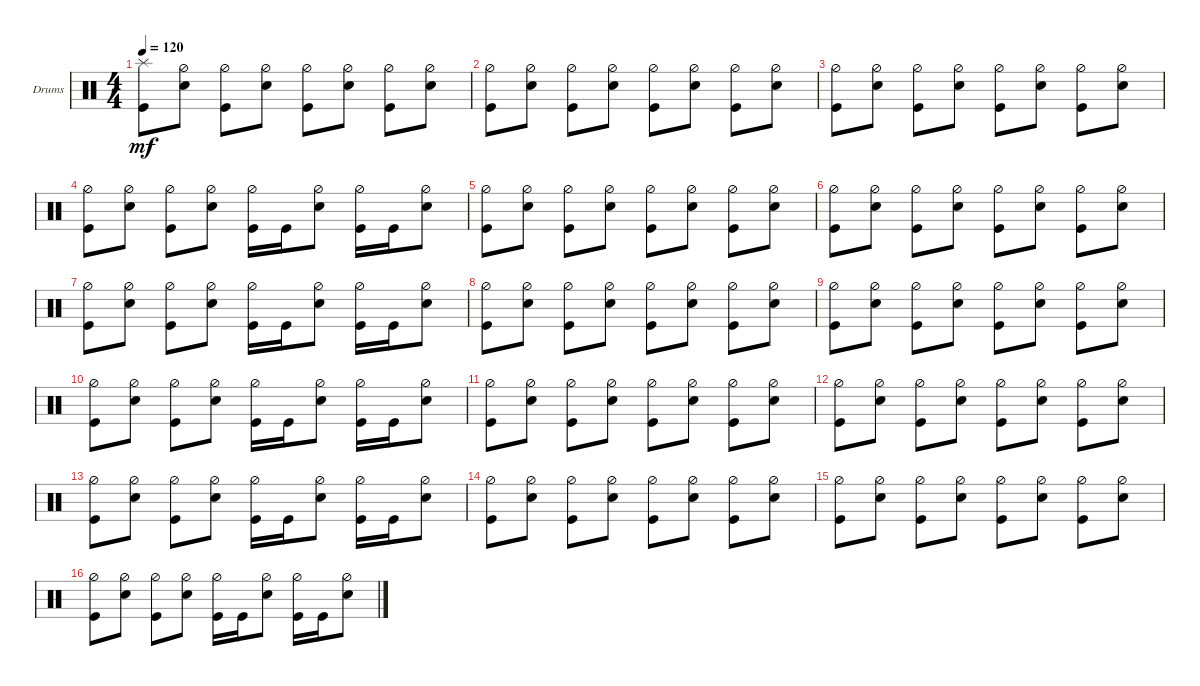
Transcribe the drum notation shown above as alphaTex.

\bracketExtendMode groupsimilarinstruments
\firstSystemTrackNameOrientation horizontal
\otherSystemsTrackNameOrientation horizontal
\track ("Drumkit" "Drums") {solo instrument percussion}
\staff {score}
\articulation defaults
\ts (4 4)
\tempo 120
\clef neutral
\ks c
("Kick (hit)" "Splash (hit)").8{dy mf} ("Snare (hit) 2" "Hi-Hat (half)").8 ("Kick (hit)" "Hi-Hat (half)").8 ("Snare (hit) 2" "Hi-Hat (half)").8 ("Kick (hit)" "Hi-Hat (half)").8 ("Snare (hit) 2" "Hi-Hat (half)").8 ("Kick (hit)" "Hi-Hat (half)").8 ("Snare (hit) 2" "Hi-Hat (half)").8 |
("Kick (hit)" "Hi-Hat (half)").8 ("Snare (hit) 2" "Hi-Hat (half)").8 ("Kick (hit)" "Hi-Hat (half)").8 ("Snare (hit) 2" "Hi-Hat (half)").8 ("Kick (hit)" "Hi-Hat (half)").8 ("Snare (hit) 2" "Hi-Hat (half)").8 ("Kick (hit)" "Hi-Hat (half)").8 ("Snare (hit) 2" "Hi-Hat (half)").8 |
("Kick (hit)" "Hi-Hat (half)").8 ("Snare (hit) 2" "Hi-Hat (half)").8 ("Kick (hit)" "Hi-Hat (half)").8 ("Snare (hit) 2" "Hi-Hat (half)").8 ("Kick (hit)" "Hi-Hat (half)").8 ("Snare (hit) 2" "Hi-Hat (half)").8 ("Kick (hit)" "Hi-Hat (half)").8 ("Snare (hit) 2" "Hi-Hat (half)").8 |
("Kick (hit)" "Hi-Hat (half)").8 ("Snare (hit) 2" "Hi-Hat (half)").8 ("Kick (hit)" "Hi-Hat (half)").8 ("Snare (hit) 2" "Hi-Hat (half)").8 ("Kick (hit)" "Hi-Hat (half)").16 "Kick (hit)".16 ("Snare (hit) 2" "Hi-Hat (half)").8 ("Kick (hit)" "Hi-Hat (half)").16 "Kick (hit)".16 ("Snare (hit) 2" "Hi-Hat (half)").8 |
("Kick (hit)" "Hi-Hat (half)").8 ("Snare (hit) 2" "Hi-Hat (half)").8 ("Kick (hit)" "Hi-Hat (half)").8 ("Snare (hit) 2" "Hi-Hat (half)").8 ("Kick (hit)" "Hi-Hat (half)").8 ("Snare (hit) 2" "Hi-Hat (half)").8 ("Kick (hit)" "Hi-Hat (half)").8 ("Snare (hit) 2" "Hi-Hat (half)").8 |
("Kick (hit)" "Hi-Hat (half)").8 ("Snare (hit) 2" "Hi-Hat (half)").8 ("Kick (hit)" "Hi-Hat (half)").8 ("Snare (hit) 2" "Hi-Hat (half)").8 ("Kick (hit)" "Hi-Hat (half)").8 ("Snare (hit) 2" "Hi-Hat (half)").8 ("Kick (hit)" "Hi-Hat (half)").8 ("Snare (hit) 2" "Hi-Hat (half)").8 |
("Kick (hit)" "Hi-Hat (half)").8 ("Snare (hit) 2" "Hi-Hat (half)").8 ("Kick (hit)" "Hi-Hat (half)").8 ("Snare (hit) 2" "Hi-Hat (half)").8 ("Kick (hit)" "Hi-Hat (half)").16 "Kick (hit)".16 ("Snare (hit) 2" "Hi-Hat (half)").8 ("Kick (hit)" "Hi-Hat (half)").16 "Kick (hit)".16 ("Snare (hit) 2" "Hi-Hat (half)").8 |
("Kick (hit)" "Hi-Hat (half)").8 ("Snare (hit) 2" "Hi-Hat (half)").8 ("Kick (hit)" "Hi-Hat (half)").8 ("Snare (hit) 2" "Hi-Hat (half)").8 ("Kick (hit)" "Hi-Hat (half)").8 ("Snare (hit) 2" "Hi-Hat (half)").8 ("Kick (hit)" "Hi-Hat (half)").8 ("Snare (hit) 2" "Hi-Hat (half)").8 |
("Kick (hit)" "Hi-Hat (half)").8 ("Snare (hit) 2" "Hi-Hat (half)").8 ("Kick (hit)" "Hi-Hat (half)").8 ("Snare (hit) 2" "Hi-Hat (half)").8 ("Kick (hit)" "Hi-Hat (half)").8 ("Snare (hit) 2" "Hi-Hat (half)").8 ("Kick (hit)" "Hi-Hat (half)").8 ("Snare (hit) 2" "Hi-Hat (half)").8 |
("Kick (hit)" "Hi-Hat (half)").8 ("Snare (hit) 2" "Hi-Hat (half)").8 ("Kick (hit)" "Hi-Hat (half)").8 ("Snare (hit) 2" "Hi-Hat (half)").8 ("Kick (hit)" "Hi-Hat (half)").16 "Kick (hit)".16 ("Snare (hit) 2" "Hi-Hat (half)").8 ("Kick (hit)" "Hi-Hat (half)").16 "Kick (hit)".16 ("Snare (hit) 2" "Hi-Hat (half)").8 |
("Kick (hit)" "Hi-Hat (half)").8 ("Snare (hit) 2" "Hi-Hat (half)").8 ("Kick (hit)" "Hi-Hat (half)").8 ("Snare (hit) 2" "Hi-Hat (half)").8 ("Kick (hit)" "Hi-Hat (half)").8 ("Snare (hit) 2" "Hi-Hat (half)").8 ("Kick (hit)" "Hi-Hat (half)").8 ("Snare (hit) 2" "Hi-Hat (half)").8 |
("Kick (hit)" "Hi-Hat (half)").8 ("Snare (hit) 2" "Hi-Hat (half)").8 ("Kick (hit)" "Hi-Hat (half)").8 ("Snare (hit) 2" "Hi-Hat (half)").8 ("Kick (hit)" "Hi-Hat (half)").8 ("Snare (hit) 2" "Hi-Hat (half)").8 ("Kick (hit)" "Hi-Hat (half)").8 ("Snare (hit) 2" "Hi-Hat (half)").8 |
("Kick (hit)" "Hi-Hat (half)").8 ("Snare (hit) 2" "Hi-Hat (half)").8 ("Kick (hit)" "Hi-Hat (half)").8 ("Snare (hit) 2" "Hi-Hat (half)").8 ("Kick (hit)" "Hi-Hat (half)").16 "Kick (hit)".16 ("Snare (hit) 2" "Hi-Hat (half)").8 ("Kick (hit)" "Hi-Hat (half)").16 "Kick (hit)".16 ("Snare (hit) 2" "Hi-Hat (half)").8 |
("Kick (hit)" "Hi-Hat (half)").8 ("Snare (hit) 2" "Hi-Hat (half)").8 ("Kick (hit)" "Hi-Hat (half)").8 ("Snare (hit) 2" "Hi-Hat (half)").8 ("Kick (hit)" "Hi-Hat (half)").8 ("Snare (hit) 2" "Hi-Hat (half)").8 ("Kick (hit)" "Hi-Hat (half)").8 ("Snare (hit) 2" "Hi-Hat (half)").8 |
("Kick (hit)" "Hi-Hat (half)").8 ("Snare (hit) 2" "Hi-Hat (half)").8 ("Kick (hit)" "Hi-Hat (half)").8 ("Snare (hit) 2" "Hi-Hat (half)").8 ("Kick (hit)" "Hi-Hat (half)").8 ("Snare (hit) 2" "Hi-Hat (half)").8 ("Kick (hit)" "Hi-Hat (half)").8 ("Snare (hit) 2" "Hi-Hat (half)").8 |
("Kick (hit)" "Hi-Hat (half)").8 ("Snare (hit) 2" "Hi-Hat (half)").8 ("Kick (hit)" "Hi-Hat (half)").8 ("Snare (hit) 2" "Hi-Hat (half)").8 ("Kick (hit)" "Hi-Hat (half)").16 "Kick (hit)".16 ("Snare (hit) 2" "Hi-Hat (half)").8 ("Kick (hit)" "Hi-Hat (half)").16 "Kick (hit)".16 ("Snare (hit) 2" "Hi-Hat (half)").8
